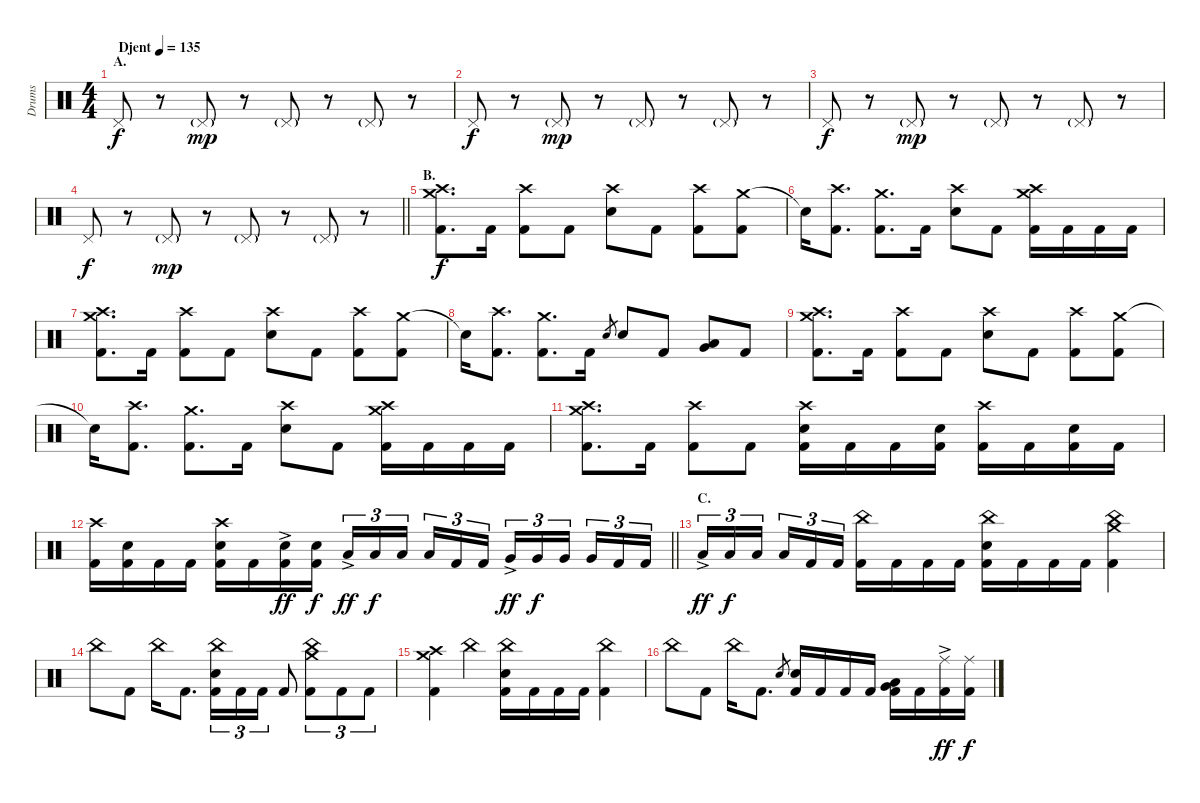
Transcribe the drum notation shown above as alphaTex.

\track ("Drums" "Drums") {instrument percussion}
\staff {score}
\articulation defaults
\ts (4 4)
\section ("" "A.")
\tempo (135 "Djent")
\clef neutral
\ks c "Pedal Hi-Hat (hit)".8{dy f}
r.8 "Pedal Hi-Hat (hit)"{g}.8{dy mp} r.8 "Pedal Hi-Hat (hit)"{g}.8 r.8 "Pedal Hi-Hat (hit)"{g}.8 r.8 |
"Pedal Hi-Hat (hit)".8{dy f} r.8 "Pedal Hi-Hat (hit)"{g}.8{dy mp} r.8 "Pedal Hi-Hat (hit)"{g}.8 r.8 "Pedal Hi-Hat (hit)"{g}.8 r.8 |
"Pedal Hi-Hat (hit)".8{dy f} r.8 "Pedal Hi-Hat (hit)"{g}.8{dy mp} r.8 "Pedal Hi-Hat (hit)"{g}.8 r.8 "Pedal Hi-Hat (hit)"{g}.8 r.8 |
\barLineRight lightlight "Pedal Hi-Hat (hit)".8{dy f}
r.8 "Pedal Hi-Hat (hit)"{g}.8{dy mp} r.8 "Pedal Hi-Hat (hit)"{g}.8 r.8 "Pedal Hi-Hat (hit)"{g}.8 r.8 |
\section ("" "B.")
("Crash medium (hit)" "Crash high (hit)" "Kick (hit) 2").8{d dy f} "Kick (hit) 2".16 ("Crash high (hit)" "Kick (hit) 2").8 "Kick (hit) 2".8 ("Crash high (hit)" "Electric Snare (hit)").8 "Kick (hit) 2".8 ("Crash high (hit)" "Kick (hit) 2").8 ("Crash medium (hit)" "Kick (hit) 2").8 |
"Snare (hit)"{t}.16 ("Crash high (hit)" "Kick (hit) 2").8{d} ("Crash medium (hit)" "Kick (hit) 2").8{d} "Kick (hit) 2".16 ("Crash high (hit)" "Electric Snare (hit)").8 "Kick (hit) 2".8 ("Crash medium (hit)" "Crash high (hit)" "Kick (hit) 2").16 "Kick (hit) 2".16 "Kick (hit) 2".16 "Kick (hit) 2".16 |
("Crash medium (hit)" "Crash high (hit)" "Kick (hit) 2").8{d} "Kick (hit) 2".16 ("Crash high (hit)" "Kick (hit) 2").8 "Kick (hit) 2".8 ("Crash high (hit)" "Electric Snare (hit)").8 "Kick (hit) 2".8 ("Crash high (hit)" "Kick (hit) 2").8 ("Crash medium (hit)" "Kick (hit) 2").8 |
"Snare (hit)"{t}.16 ("Crash high (hit)" "Kick (hit) 2").8{d} ("Crash medium (hit)" "Kick (hit) 2").8{d} "Kick (hit) 2".16 "Electric Snare (hit)".8{gr} "Electric Snare (hit)".8 "Kick (hit) 2".8 ("Very Low Tom (hit)" "Low Floor Tom (hit)").8{bu 120} "Kick (hit) 2".8 |
("Crash medium (hit)" "Crash high (hit)" "Kick (hit) 2").8{d} "Kick (hit) 2".16 ("Crash high (hit)" "Kick (hit) 2").8 "Kick (hit) 2".8 ("Crash high (hit)" "Electric Snare (hit)").8 "Kick (hit) 2".8 ("Crash high (hit)" "Kick (hit) 2").8 ("Crash medium (hit)" "Kick (hit) 2").8 |
"Snare (hit)"{t}.16 ("Crash high (hit)" "Kick (hit) 2").8{d} ("Crash medium (hit)" "Kick (hit) 2").8{d} "Kick (hit) 2".16 ("Crash high (hit)" "Electric Snare (hit)").8 "Kick (hit) 2".8 ("Crash medium (hit)" "Crash high (hit)" "Kick (hit) 2").16 "Kick (hit) 2".16 "Kick (hit) 2".16 "Kick (hit) 2".16 |
("Crash medium (hit)" "Crash high (hit)" "Kick (hit) 2").8{d} "Kick (hit) 2".16 ("Crash high (hit)" "Kick (hit) 2").8 "Kick (hit) 2".8 ("Crash high (hit)" "Electric Snare (hit)" "Kick (hit) 2").16 "Kick (hit) 2".16 "Kick (hit) 2".16 ("Electric Snare (hit)" "Kick (hit) 2").16 ("Crash high (hit)" "Kick (hit) 2").16 "Kick (hit) 2".16 ("Electric Snare (hit)" "Kick (hit) 2").16 "Kick (hit) 2".16 |
\barLineRight lightlight
("Crash high (hit)" "Kick (hit) 2").16 ("Electric Snare (hit)" "Kick (hit) 2").16 "Kick (hit) 2".16 "Kick (hit) 2".16 ("Crash high (hit)" "Electric Snare (hit)" "Kick (hit) 2").16 "Kick (hit) 2".16 ("Electric Snare (hit)"{ac} "Kick (hit) 2").16{dy ff} ("Electric Snare (hit)" "Kick (hit) 2").16{dy f} "Low Tom (hit)"{ac}.16{tu (3 2) dy ff} "Low Tom (hit)".16{tu (3 2) dy f} "Low Tom (hit)".16{tu (3 2) beam splitsecondary} "Low Tom (hit)".16{tu (3 2)} "Kick (hit) 2".16{tu (3 2)} "Kick (hit) 2".16{tu (3 2)} "Very Low Tom (hit)"{ac}.16{tu (3 2) dy ff} "Very Low Tom (hit)".16{tu (3 2) dy f} "Very Low Tom (hit)".16{tu (3 2) beam splitsecondary} "Very Low Tom (hit)".16{tu (3 2)} "Kick (hit) 2".16{tu (3 2)} "Kick (hit) 2".16{tu (3 2)} |
\section ("" "C.")
"Low Floor Tom (hit)"{ac}.16{tu (3 2) dy ff} "Low Floor Tom (hit)".16{tu (3 2) dy f} "Low Floor Tom (hit)".16{tu (3 2) beam splitsecondary} "Low Floor Tom (hit)".16{tu (3 2)} "Kick (hit) 2".16{tu (3 2)} "Kick (hit) 2".16{tu (3 2)} ("China (hit)" "Kick (hit) 2").16 "Kick (hit) 2".16 "Kick (hit) 2".16 "Kick (hit) 2".16 ("China (hit)" "Electric Snare (hit)" "Kick (hit) 2").16 "Kick (hit) 2".16 "Kick (hit) 2".16 "Kick (hit) 2".16 ("China (hit)" "Crash medium (hit)" "Kick (hit) 2").4 |
"China (hit)".8 "Kick (hit) 2".8 "China (hit)".16 "Kick (hit) 2".8{d} ("China (hit)" "Electric Snare (hit)" "Kick (hit) 2").16{tu (3 2)} "Kick (hit) 2".16{tu (3 2)} "Kick (hit) 2".16{tu (3 2)} "Kick (hit) 2".8 ("China (hit)" "Crash medium (hit)" "Kick (hit) 2").8{tu (3 2)} "Kick (hit) 2".8{tu (3 2)} "Kick (hit) 2".8{tu (3 2)} |
("Crash medium (hit)" "Crash high (hit)" "Kick (hit) 2").4 "China (hit)".4 ("China (hit)" "Electric Snare (hit)" "Kick (hit) 2").16 "Kick (hit) 2".16 "Kick (hit) 2".16 "Kick (hit) 2".16 ("China (hit)" "Kick (hit) 2").4 |
"China (hit)".8 "Kick (hit) 2".8 "China (hit)".16 "Kick (hit) 2".8{d} "Electric Snare (hit)".8{gr} ("Electric Snare (hit)" "Kick (hit) 2").16 "Kick (hit) 2".16 "Kick (hit) 2".16 "Kick (hit) 2".16 ("Very Low Tom (hit)" "Low Floor Tom (hit)" "Kick (hit) 2").16 "Kick (hit) 2".16 ("Ride (middle)"{ac} "Kick (hit) 2").16{dy ff} ("Ride (middle)" "Kick (hit) 2").16{dy f}
